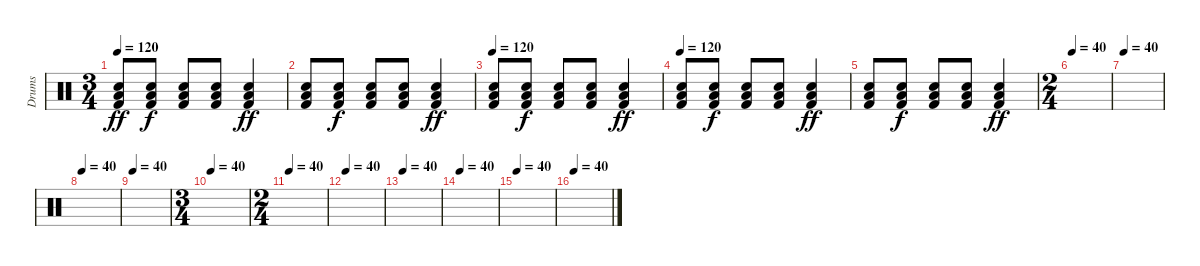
\track ("Drums" "Drums") {instrument percussion}
\staff {score}
\articulation defaults
\ts (3 4)
\tempo 120
\clef neutral
\ks c
("Low Floor Tom (hit)" "Electric Snare (hit)" "Kick (hit) 2").8{dy ff} ("Low Floor Tom (hit)" "Electric Snare (hit)" "Kick (hit) 2").8{dy f} ("Low Floor Tom (hit)" "Kick (hit) 2" "Electric Snare (hit)").8 ("Low Floor Tom (hit)" "Electric Snare (hit)" "Kick (hit) 2").8 ("Low Floor Tom (hit)" "Electric Snare (hit)" "Kick (hit) 2").4{dy ff} |
("Low Floor Tom (hit)" "Electric Snare (hit)" "Kick (hit) 2").8 ("Low Floor Tom (hit)" "Electric Snare (hit)" "Kick (hit) 2").8{dy f} ("Low Floor Tom (hit)" "Kick (hit) 2" "Electric Snare (hit)").8 ("Low Floor Tom (hit)" "Electric Snare (hit)" "Kick (hit) 2").8 ("Low Floor Tom (hit)" "Electric Snare (hit)" "Kick (hit) 2").4{dy ff} |
\tempo 120
("Low Floor Tom (hit)" "Electric Snare (hit)" "Kick (hit) 2").8 ("Low Floor Tom (hit)" "Electric Snare (hit)" "Kick (hit) 2").8{dy f} ("Low Floor Tom (hit)" "Kick (hit) 2" "Electric Snare (hit)").8 ("Low Floor Tom (hit)" "Electric Snare (hit)" "Kick (hit) 2").8 ("Low Floor Tom (hit)" "Electric Snare (hit)" "Kick (hit) 2").4{dy ff} |
\tempo 120
("Low Floor Tom (hit)" "Electric Snare (hit)" "Kick (hit) 2").8 ("Low Floor Tom (hit)" "Electric Snare (hit)" "Kick (hit) 2").8{dy f} ("Low Floor Tom (hit)" "Kick (hit) 2" "Electric Snare (hit)").8 ("Low Floor Tom (hit)" "Electric Snare (hit)" "Kick (hit) 2").8 ("Low Floor Tom (hit)" "Electric Snare (hit)" "Kick (hit) 2").4{dy ff} |
("Low Floor Tom (hit)" "Electric Snare (hit)" "Kick (hit) 2").8 ("Low Floor Tom (hit)" "Electric Snare (hit)" "Kick (hit) 2").8{dy f} ("Low Floor Tom (hit)" "Kick (hit) 2" "Electric Snare (hit)").8 ("Low Floor Tom (hit)" "Electric Snare (hit)" "Kick (hit) 2").8 ("Low Floor Tom (hit)" "Electric Snare (hit)" "Kick (hit) 2").4{dy ff} |
\ts (2 4)
\tempo 40
|
\tempo 40
|
\tempo 40
|
\tempo 40
|
\ts (3 4)
\tempo 40
|
\ts (2 4)
\tempo 40
|
\tempo 40
|
\tempo 40
|
\tempo 40
|
\tempo 40
|
\tempo 40
